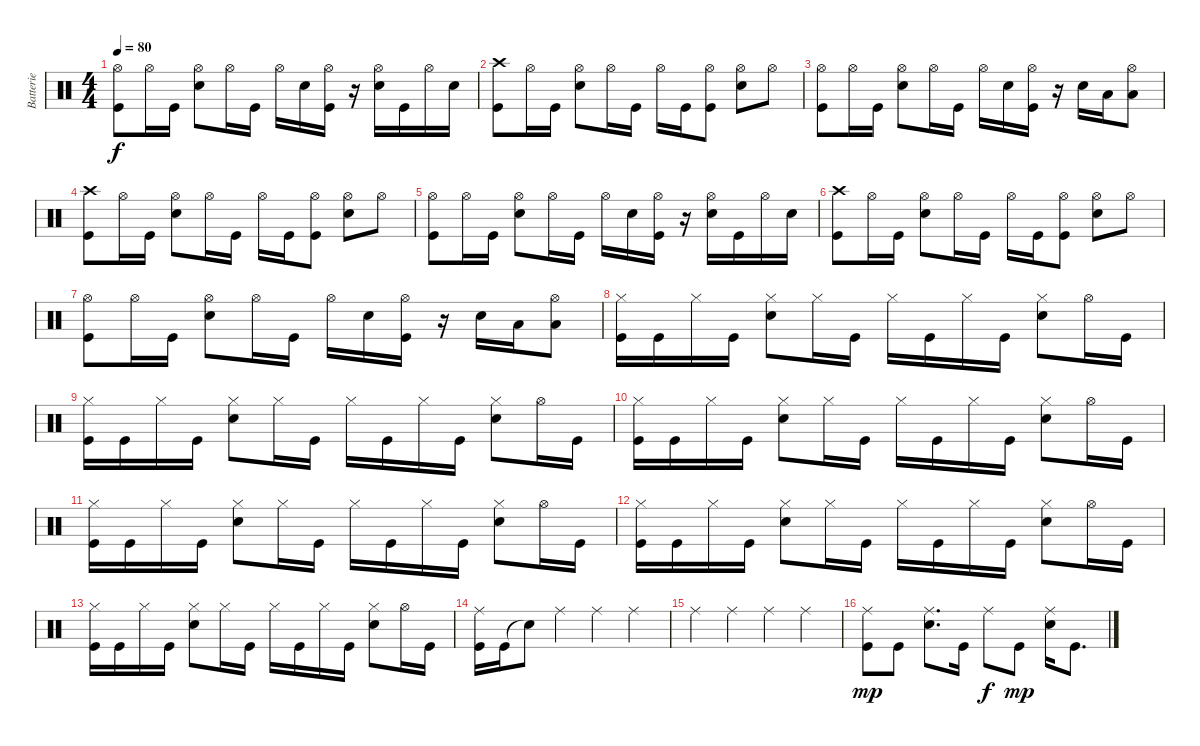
\track ("Batterie" "Batterie") {instrument percussion}
\staff {score}
\articulation defaults
\ts (4 4)
\tempo 80
\clef neutral
\ks c
("Hi-Hat (open)" "Kick (hit)").8{dy f} "Hi-Hat (open)".16 "Kick (hit)".16 ("Hi-Hat (open)" "Electric Snare (hit)").8 "Hi-Hat (open)".16 "Kick (hit)".16 "Hi-Hat (open)".16 "Electric Snare (hit)".16 ("Hi-Hat (open)" "Kick (hit)").16 r.16 ("Hi-Hat (open)" "Electric Snare (hit)").16 "Kick (hit)".16 "Hi-Hat (open)".16 "Electric Snare (hit)".16 |
("Crash high (hit)" "Kick (hit)").8{volume 16} "Hi-Hat (open)".16 "Kick (hit)".16 ("Hi-Hat (open)" "Electric Snare (hit)").8 "Hi-Hat (open)".16 "Kick (hit)".16 "Hi-Hat (open)".16 "Kick (hit)".16 ("Hi-Hat (open)" "Kick (hit)").8 ("Hi-Hat (open)" "Electric Snare (hit)").8 "Hi-Hat (open)".8 |
("Hi-Hat (open)" "Kick (hit)").8 "Hi-Hat (open)".16 "Kick (hit)".16 ("Hi-Hat (open)" "Electric Snare (hit)").8 "Hi-Hat (open)".16 "Kick (hit)".16 "Hi-Hat (open)".16 "Electric Snare (hit)".16 ("Hi-Hat (open)" "Kick (hit)").16 r.16 "Electric Snare (hit)".16 "Low Tom (hit)".16 ("Hi-Hat (open)" "Low Floor Tom (hit)").8 |
("Crash high (hit)" "Kick (hit)").8{volume 16} "Hi-Hat (open)".16 "Kick (hit)".16 ("Hi-Hat (open)" "Electric Snare (hit)").8 "Hi-Hat (open)".16 "Kick (hit)".16 "Hi-Hat (open)".16 "Kick (hit)".16 ("Hi-Hat (open)" "Kick (hit)").8 ("Hi-Hat (open)" "Electric Snare (hit)").8 "Hi-Hat (open)".8 |
("Hi-Hat (open)" "Kick (hit)").8 "Hi-Hat (open)".16 "Kick (hit)".16 ("Hi-Hat (open)" "Electric Snare (hit)").8 "Hi-Hat (open)".16 "Kick (hit)".16 "Hi-Hat (open)".16 "Electric Snare (hit)".16 ("Hi-Hat (open)" "Kick (hit)").16 r.16 ("Hi-Hat (open)" "Electric Snare (hit)").16 "Kick (hit)".16 "Hi-Hat (open)".16 "Electric Snare (hit)".16 |
("Crash high (hit)" "Kick (hit)").8{volume 16} "Hi-Hat (open)".16 "Kick (hit)".16 ("Hi-Hat (open)" "Electric Snare (hit)").8 "Hi-Hat (open)".16 "Kick (hit)".16 "Hi-Hat (open)".16 "Kick (hit)".16 ("Hi-Hat (open)" "Kick (hit)").8 ("Hi-Hat (open)" "Electric Snare (hit)").8 "Hi-Hat (open)".8 |
("Hi-Hat (open)" "Kick (hit)").8 "Hi-Hat (open)".16 "Kick (hit)".16 ("Hi-Hat (open)" "Electric Snare (hit)").8 "Hi-Hat (open)".16 "Kick (hit)".16 "Hi-Hat (open)".16 "Electric Snare (hit)".16 ("Hi-Hat (open)" "Kick (hit)").16 r.16 "Electric Snare (hit)".16 "Low Tom (hit)".16 ("Hi-Hat (open)" "Low Floor Tom (hit)").8 |
("Hi-Hat (closed)" "Kick (hit)").16{volume 16} "Kick (hit)".16 "Hi-Hat (closed)".16 "Kick (hit)".16 ("Hi-Hat (closed)" "Electric Snare (hit)").8 "Hi-Hat (closed)".16 "Kick (hit)".16 "Hi-Hat (closed)".16 "Kick (hit)".16 "Hi-Hat (closed)".16 "Kick (hit)".16 ("Hi-Hat (closed)" "Electric Snare (hit)").8 "Hi-Hat (open)".16 "Kick (hit)".16 |
("Hi-Hat (closed)" "Kick (hit)").16{volume 16} "Kick (hit)".16 "Hi-Hat (closed)".16 "Kick (hit)".16 ("Hi-Hat (closed)" "Electric Snare (hit)").8 "Hi-Hat (closed)".16 "Kick (hit)".16 "Hi-Hat (closed)".16 "Kick (hit)".16 "Hi-Hat (closed)".16 "Kick (hit)".16 ("Hi-Hat (closed)" "Electric Snare (hit)").8 "Hi-Hat (open)".16 "Kick (hit)".16 |
("Hi-Hat (closed)" "Kick (hit)").16{volume 16} "Kick (hit)".16 "Hi-Hat (closed)".16 "Kick (hit)".16 ("Hi-Hat (closed)" "Electric Snare (hit)").8 "Hi-Hat (closed)".16 "Kick (hit)".16 "Hi-Hat (closed)".16 "Kick (hit)".16 "Hi-Hat (closed)".16 "Kick (hit)".16 ("Hi-Hat (closed)" "Electric Snare (hit)").8 "Hi-Hat (open)".16 "Kick (hit)".16 |
("Hi-Hat (closed)" "Kick (hit)").16{volume 16} "Kick (hit)".16 "Hi-Hat (closed)".16 "Kick (hit)".16 ("Hi-Hat (closed)" "Electric Snare (hit)").8 "Hi-Hat (closed)".16 "Kick (hit)".16 "Hi-Hat (closed)".16 "Kick (hit)".16 "Hi-Hat (closed)".16 "Kick (hit)".16 ("Hi-Hat (closed)" "Electric Snare (hit)").8 "Hi-Hat (open)".16 "Kick (hit)".16 |
("Hi-Hat (closed)" "Kick (hit)").16{volume 16} "Kick (hit)".16 "Hi-Hat (closed)".16 "Kick (hit)".16 ("Hi-Hat (closed)" "Electric Snare (hit)").8 "Hi-Hat (closed)".16 "Kick (hit)".16 "Hi-Hat (closed)".16 "Kick (hit)".16 "Hi-Hat (closed)".16 "Kick (hit)".16 ("Hi-Hat (closed)" "Electric Snare (hit)").8 "Hi-Hat (open)".16 "Kick (hit)".16 |
("Hi-Hat (closed)" "Kick (hit)").16{volume 16} "Kick (hit)".16 "Hi-Hat (closed)".16 "Kick (hit)".16 ("Hi-Hat (closed)" "Electric Snare (hit)").8 "Hi-Hat (closed)".16 "Kick (hit)".16 "Hi-Hat (closed)".16 "Kick (hit)".16 "Hi-Hat (closed)".16 "Kick (hit)".16 ("Hi-Hat (closed)" "Electric Snare (hit)").8 "Hi-Hat (open)".16 "Kick (hit)".16 |
("Ride (middle)" "Kick (hit)").16 "Kick (hit)".16 "Snare (hit)"{t}.8 "Ride (middle)".4 "Ride (middle)".4 "Ride (middle)".4 |
"Ride (middle)".4 "Ride (middle)".4 "Ride (middle)".4 "Ride (middle)".4 |
("Ride (middle)" "Kick (hit)").8{dy mp} "Kick (hit)".8 ("Ride (middle)" "Snare (hit) 2").8{d} "Kick (hit)".16 "Ride (middle)".8{dy f} "Kick (hit)".8{dy mp} ("Ride (middle)" "Snare (hit) 2").16 "Kick (hit)".8{d}
